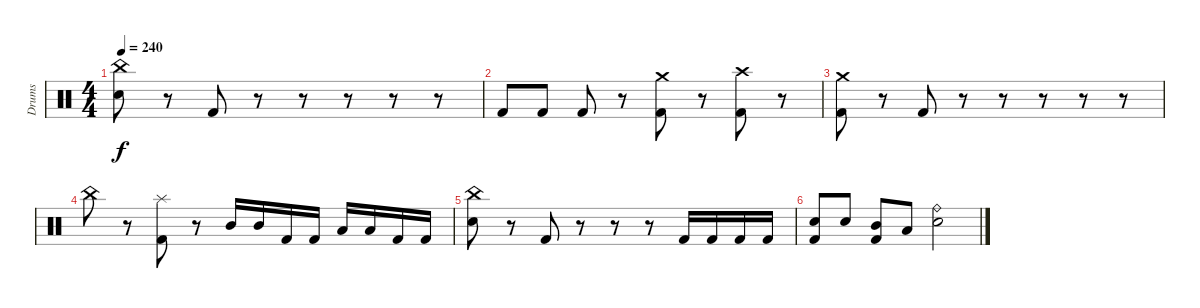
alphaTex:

\track ("Drums" "Drums") {instrument percussion}
\staff {score}
\articulation defaults
\ts (4 4)
\tempo 240
\clef neutral
\ks c
("China (hit)" "Electric Snare (hit)").8{dy f} r.8 "Kick (hit) 2".8 r.8 r.8 r.8 r.8 r.8 |
"Kick (hit) 2".8 "Kick (hit) 2".8 "Kick (hit) 2".8 r.8 ("Crash medium (hit)" "Kick (hit) 2").8 r.8 ("Crash high (hit)" "Kick (hit) 2").8 r.8 |
("Crash medium (hit)" "Kick (hit) 2").8 r.8 "Kick (hit) 2".8 r.8 r.8 r.8 r.8 r.8 |
"China (hit)".8 r.8 ("Splash (hit)" "Kick (hit) 2").8 r.8 "Mid Tom (hit)".16 "Mid Tom (hit)".16 "Kick (hit) 2".16 "Kick (hit) 2".16 "Low Tom (hit)".16 "Low Tom (hit)".16 "Kick (hit) 2".16 "Kick (hit) 2".16 |
("China (hit)" "Electric Snare (hit)").8 r.8 "Kick (hit) 2".8 r.8 r.8 r.8 "Kick (hit) 2".16 "Kick (hit) 2".16 "Kick (hit) 2".16 "Kick (hit) 2".16 |
("Electric Snare (hit)" "Kick (hit) 2").8 "Electric Snare (hit)".8 ("Mid Tom (hit)" "Kick (hit) 2").8 "Low Tom (hit)".8 ("Ride (bell)" "Electric Snare (hit)").2
